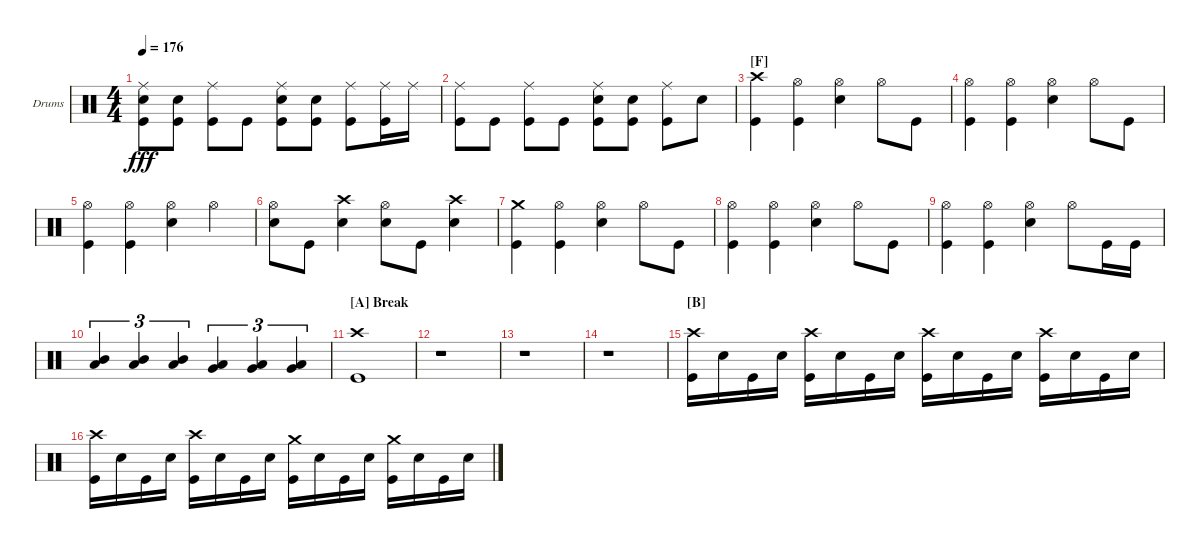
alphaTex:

\defaultSystemsLayout 4
\bracketExtendMode groupsimilarinstruments
\firstSystemTrackNameOrientation horizontal
\otherSystemsTrackNameOrientation horizontal
\track ("Drums" "Drums") {instrument percussion}
\staff {score}
\articulation defaults
\ts (4 4)
\tempo 176
\clef neutral
\ks c
("Kick (hit)" "Snare (hit) 2" "Ride (middle)").8{dy fff} ("Kick (hit)" "Snare (hit) 2").8 ("Kick (hit)" "Ride (middle)").8 "Kick (hit)".8 ("Snare (hit) 2" "Ride (middle)" "Kick (hit)").8 ("Snare (hit) 2" "Kick (hit)").8 ("Kick (hit)" "Ride (middle)").8 ("Kick (hit)" "Ride (middle)").16 "Ride (middle)".16 |
("Kick (hit)" "Ride (middle)").8 "Kick (hit)".8 ("Kick (hit)" "Ride (middle)").8 "Kick (hit)".8 ("Snare (hit) 2" "Ride (middle)" "Kick (hit)").8 ("Snare (hit) 2" "Kick (hit)").8 ("Kick (hit)" "Ride (middle)").8 "Snare (hit) 2".8 |
\section ("F" "")
("Kick (hit)" "Crash high (hit)").4 ("Kick (hit)" "Hi-Hat (open)").4 ("Snare (hit) 2" "Hi-Hat (open)").4 "Hi-Hat (open)".8 "Kick (hit)".8 |
("Kick (hit)" "Hi-Hat (open)").4 ("Kick (hit)" "Hi-Hat (open)").4 ("Snare (hit) 2" "Hi-Hat (open)").4 "Hi-Hat (open)".8 "Kick (hit)".8 |
("Kick (hit)" "Hi-Hat (open)").4 ("Kick (hit)" "Hi-Hat (open)").4 ("Snare (hit) 2" "Hi-Hat (open)").4 "Hi-Hat (open)".4 |
("Snare (hit) 2" "Hi-Hat (open)").8 "Kick (hit)".8 ("Snare (hit) 2" "Crash high (hit)").4 ("Snare (hit) 2" "Hi-Hat (open)").8 "Kick (hit)".8 ("Snare (hit) 2" "Crash high (hit)").4 |
("Kick (hit)" "Crash medium (hit)").4 ("Kick (hit)" "Hi-Hat (open)").4 ("Snare (hit) 2" "Hi-Hat (open)").4 "Hi-Hat (open)".8 "Kick (hit)".8 |
("Kick (hit)" "Hi-Hat (open)").4 ("Kick (hit)" "Hi-Hat (open)").4 ("Snare (hit) 2" "Hi-Hat (open)").4 "Hi-Hat (open)".8 "Kick (hit)".8 |
("Kick (hit)" "Hi-Hat (open)").4 ("Kick (hit)" "Hi-Hat (open)").4 ("Snare (hit) 2" "Hi-Hat (open)").4 "Hi-Hat (open)".8 "Kick (hit)".16 "Kick (hit)".16 |
("Mid Tom (hit)" "Low Tom (hit)").4{tu (3 2)} ("Mid Tom (hit)" "Low Tom (hit)").4{tu (3 2)} ("Mid Tom (hit)" "Low Tom (hit)").4{tu (3 2)} ("Low Tom (hit)" "Very Low Tom (hit)").4{tu (3 2)} ("Low Tom (hit)" "Very Low Tom (hit)").4{tu (3 2)} ("Low Tom (hit)" "Very Low Tom (hit)").4{tu (3 2)} |
\section ("A" "Break")
("Kick (hit)" "Crash high (hit)").1 |
r.1 |
r.1 |
r.1 |
\section ("B" "")
("Kick (hit)" "Crash high (hit)").16 "Snare (hit) 2".16 "Kick (hit)".16 "Snare (hit) 2".16 ("Kick (hit)" "Crash high (hit)").16 "Snare (hit) 2".16 "Kick (hit)".16 "Snare (hit) 2".16 ("Kick (hit)" "Crash high (hit)").16 "Snare (hit) 2".16 "Kick (hit)".16 "Snare (hit) 2".16 ("Kick (hit)" "Crash high (hit)").16 "Snare (hit) 2".16 "Kick (hit)".16 "Snare (hit) 2".16 |
("Kick (hit)" "Crash high (hit)").16 "Snare (hit) 2".16 "Kick (hit)".16 "Snare (hit) 2".16 ("Kick (hit)" "Crash high (hit)").16 "Snare (hit) 2".16 "Kick (hit)".16 "Snare (hit) 2".16 ("Kick (hit)" "Crash medium (hit)").16 "Snare (hit) 2".16 "Kick (hit)".16 "Snare (hit) 2".16 ("Kick (hit)" "Crash medium (hit)").16 "Snare (hit) 2".16 "Kick (hit)".16 "Snare (hit) 2".16
